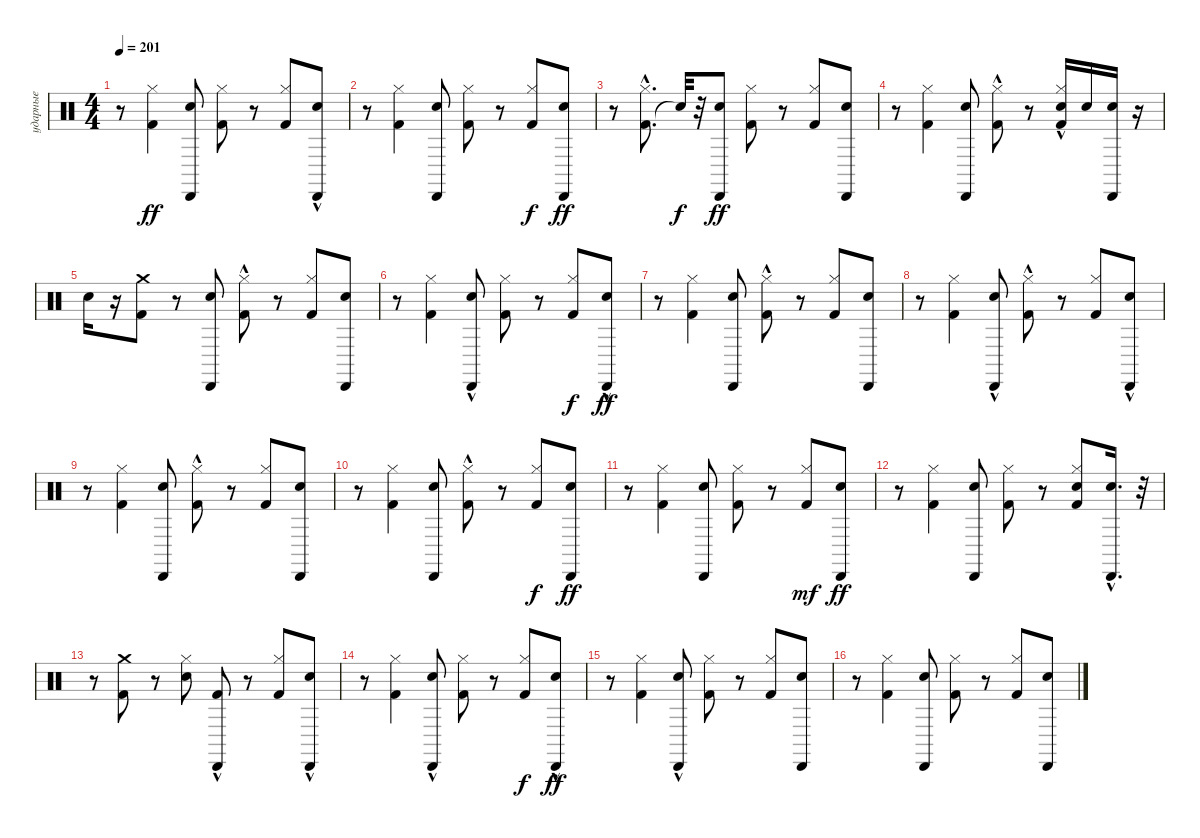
\track ("ударные" "ударные") {instrument percussion}
\staff {score}
\articulation defaults
\ts (4 4)
\tempo 201
\clef neutral
\ks c
r.8{dy ff} ("Kick (hit) 2" "Hi-Hat (closed)").4 ("Electric Snare (hit)" "Cabasa (hit)").8 ("Kick (hit) 2" "Hi-Hat (closed)").8 r.8 ("Kick (hit) 2" "Hi-Hat (closed)").8 ("Electric Snare (hit)" "Cabasa (hit)"{hac}).8 |
r.8 ("Kick (hit) 2" "Hi-Hat (closed)").4 ("Electric Snare (hit)" "Cabasa (hit)").8 ("Kick (hit) 2" "Hi-Hat (closed)").8 r.8 ("Kick (hit) 2" "Hi-Hat (closed)").8{dy f} ("Electric Snare (hit)" "Cabasa (hit)").8{dy ff} |
r.8 ("Kick (hit) 2" "Hi-Hat (closed)"{hac}).8{d} "Snare (hit)"{t}.32{dy f} r.32 ("Electric Snare (hit)" "Cabasa (hit)").8{dy ff} ("Kick (hit) 2" "Hi-Hat (closed)").8 r.8 ("Kick (hit) 2" "Hi-Hat (closed)").8 ("Electric Snare (hit)" "Cabasa (hit)").8 |
r.8 ("Kick (hit) 2" "Hi-Hat (closed)").4 ("Electric Snare (hit)" "Cabasa (hit)").8 ("Kick (hit) 2" "Hi-Hat (closed)"{hac}).8 r.8 ("Kick (hit) 2" "Electric Snare (hit)" "Hi-Hat (closed)"{hac}).16 "Electric Snare (hit)".16 ("Electric Snare (hit)" "Cabasa (hit)").16 r.16 |
"Electric Snare (hit)".16 r.16 ("Kick (hit) 2" "Crash medium (hit)").8 r.8 ("Electric Snare (hit)" "Cabasa (hit)").8 ("Kick (hit) 2" "Hi-Hat (closed)"{hac}).8 r.8 ("Kick (hit) 2" "Hi-Hat (closed)").8 ("Electric Snare (hit)" "Cabasa (hit)").8 |
r.8 ("Kick (hit) 2" "Hi-Hat (closed)").4 ("Electric Snare (hit)" "Cabasa (hit)"{hac}).8 ("Kick (hit) 2" "Hi-Hat (closed)").8 r.8 ("Kick (hit) 2" "Hi-Hat (closed)").8{dy f} ("Electric Snare (hit)" "Cabasa (hit)"{hac}).8{dy ff} |
r.8 ("Kick (hit) 2" "Hi-Hat (closed)").4 ("Electric Snare (hit)" "Cabasa (hit)").8 ("Kick (hit) 2" "Hi-Hat (closed)"{hac}).8 r.8 ("Kick (hit) 2" "Hi-Hat (closed)").8 ("Electric Snare (hit)" "Cabasa (hit)").8 |
r.8 ("Kick (hit) 2" "Hi-Hat (closed)").4 ("Electric Snare (hit)" "Cabasa (hit)"{hac}).8 ("Kick (hit) 2" "Hi-Hat (closed)"{hac}).8 r.8 ("Kick (hit) 2" "Hi-Hat (closed)").8 ("Electric Snare (hit)" "Cabasa (hit)"{hac}).8 |
r.8 ("Kick (hit) 2" "Hi-Hat (closed)").4 ("Electric Snare (hit)" "Cabasa (hit)").8 ("Kick (hit) 2" "Hi-Hat (closed)"{hac}).8 r.8 ("Kick (hit) 2" "Hi-Hat (closed)").8 ("Electric Snare (hit)" "Cabasa (hit)").8 |
r.8 ("Kick (hit) 2" "Hi-Hat (closed)").4 ("Electric Snare (hit)" "Cabasa (hit)").8 ("Kick (hit) 2" "Hi-Hat (closed)"{hac}).8 r.8 ("Kick (hit) 2" "Hi-Hat (closed)").8{dy f} ("Electric Snare (hit)" "Cabasa (hit)").8{dy ff} |
r.8 ("Kick (hit) 2" "Hi-Hat (closed)").4 ("Electric Snare (hit)" "Cabasa (hit)").8 ("Kick (hit) 2" "Hi-Hat (closed)").8 r.8 ("Kick (hit) 2" "Hi-Hat (closed)").8{dy mf} ("Electric Snare (hit)" "Cabasa (hit)").8{dy ff} |
r.8 ("Kick (hit) 2" "Hi-Hat (closed)").4 ("Electric Snare (hit)" "Cabasa (hit)").8 ("Kick (hit) 2" "Hi-Hat (closed)").8 r.8 ("Kick (hit) 2" "Electric Snare (hit)" "Hi-Hat (closed)").8 ("Electric Snare (hit)" "Cabasa (hit)"{hac}).16{d} r.32 |
r.8 ("Kick (hit) 2" "Crash medium (hit)").8 r.8 ("Electric Snare (hit)" "Hi-Hat (closed)").8 ("Kick (hit) 2" "Cabasa (hit)"{hac}).8 r.8 ("Kick (hit) 2" "Hi-Hat (closed)").8 ("Electric Snare (hit)" "Cabasa (hit)"{hac}).8 |
r.8 ("Kick (hit) 2" "Hi-Hat (closed)").4 ("Electric Snare (hit)" "Cabasa (hit)"{hac}).8 ("Kick (hit) 2" "Hi-Hat (closed)").8 r.8 ("Kick (hit) 2" "Hi-Hat (closed)").8{dy f} ("Electric Snare (hit)" "Cabasa (hit)"{hac}).8{dy ff} |
r.8 ("Kick (hit) 2" "Hi-Hat (closed)").4 ("Electric Snare (hit)" "Cabasa (hit)"{hac}).8 ("Kick (hit) 2" "Hi-Hat (closed)").8 r.8 ("Kick (hit) 2" "Hi-Hat (closed)").8 ("Electric Snare (hit)" "Cabasa (hit)").8 |
r.8 ("Kick (hit) 2" "Hi-Hat (closed)").4 ("Electric Snare (hit)" "Cabasa (hit)").8 ("Kick (hit) 2" "Hi-Hat (closed)").8 r.8 ("Kick (hit) 2" "Hi-Hat (closed)").8 ("Electric Snare (hit)" "Cabasa (hit)").8
